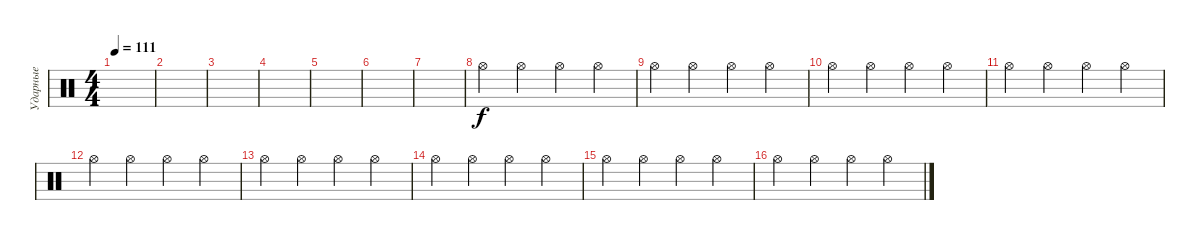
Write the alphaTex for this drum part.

\track ("Ударные" "Ударные") {instrument percussion}
\staff {score}
\articulation defaults
\ts (4 4)
\tempo 111
\clef neutral
\ks c
|
|
|
|
|
|
|
"Hi-Hat (open)".4 "Hi-Hat (open)".4 "Hi-Hat (open)".4 "Hi-Hat (open)".4 |
"Hi-Hat (open)".4 "Hi-Hat (open)".4 "Hi-Hat (open)".4 "Hi-Hat (open)".4 |
"Hi-Hat (open)".4 "Hi-Hat (open)".4 "Hi-Hat (open)".4 "Hi-Hat (open)".4 |
"Hi-Hat (open)".4 "Hi-Hat (open)".4 "Hi-Hat (open)".4 "Hi-Hat (open)".4 |
"Hi-Hat (open)".4 "Hi-Hat (open)".4 "Hi-Hat (open)".4 "Hi-Hat (open)".4 |
"Hi-Hat (open)".4 "Hi-Hat (open)".4 "Hi-Hat (open)".4 "Hi-Hat (open)".4 |
"Hi-Hat (open)".4 "Hi-Hat (open)".4 "Hi-Hat (open)".4 "Hi-Hat (open)".4 |
"Hi-Hat (open)".4 "Hi-Hat (open)".4 "Hi-Hat (open)".4 "Hi-Hat (open)".4 |
"Hi-Hat (open)".4 "Hi-Hat (open)".4 "Hi-Hat (open)".4 "Hi-Hat (open)".4
